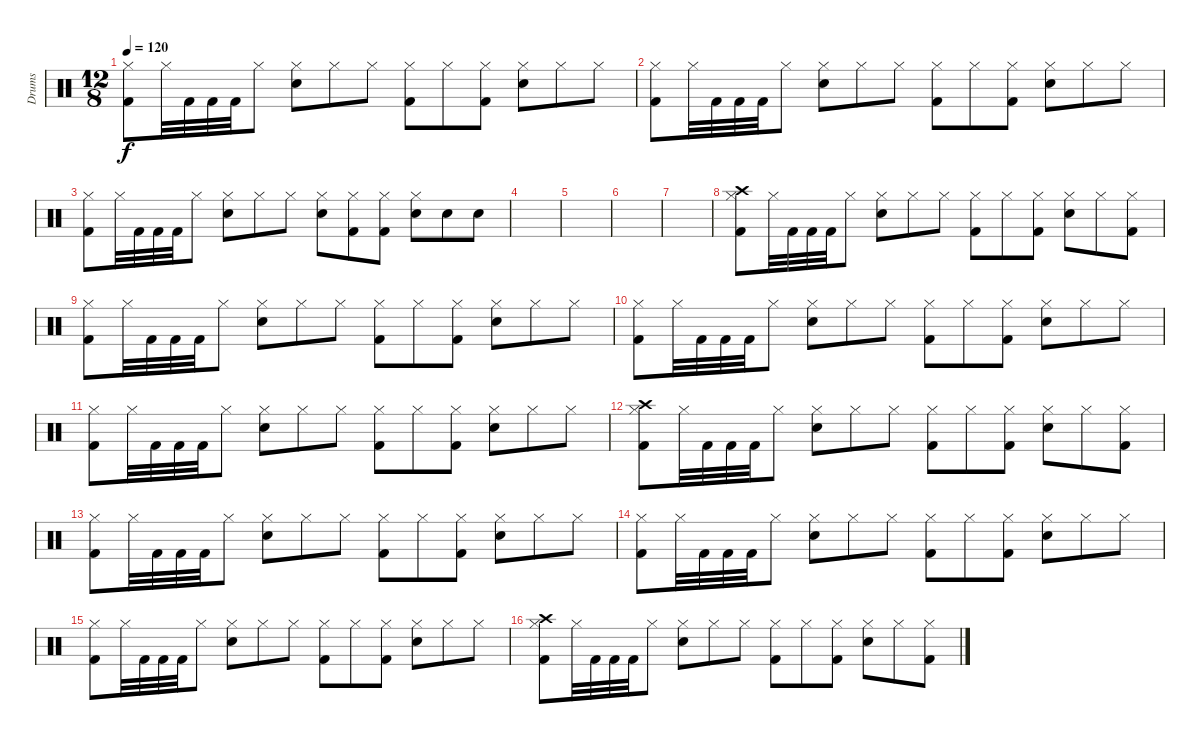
\track ("Drums" "Drums") {instrument percussion}
\staff {score}
\articulation defaults
\ts (12 8)
\tempo 120
\clef neutral
\ks c
("Hi-Hat (closed)" "Kick (hit) 2").8{dy f} "Hi-Hat (closed)".32 "Kick (hit) 2".32 "Kick (hit) 2".32 "Kick (hit) 2".32 "Hi-Hat (closed)".8 ("Hi-Hat (closed)" "Snare (hit) 2").8 "Hi-Hat (closed)".8 "Hi-Hat (closed)".8 ("Hi-Hat (closed)" "Kick (hit) 2").8 "Hi-Hat (closed)".8 ("Hi-Hat (closed)" "Kick (hit) 2").8 ("Hi-Hat (closed)" "Snare (hit) 2").8 "Hi-Hat (closed)".8 "Hi-Hat (closed)".8 |
("Hi-Hat (closed)" "Kick (hit) 2").8 "Hi-Hat (closed)".32 "Kick (hit) 2".32 "Kick (hit) 2".32 "Kick (hit) 2".32 "Hi-Hat (closed)".8 ("Hi-Hat (closed)" "Snare (hit) 2").8 "Hi-Hat (closed)".8 "Hi-Hat (closed)".8 ("Hi-Hat (closed)" "Kick (hit) 2").8 "Hi-Hat (closed)".8 ("Hi-Hat (closed)" "Kick (hit) 2").8 ("Hi-Hat (closed)" "Snare (hit) 2").8 "Hi-Hat (closed)".8 "Hi-Hat (closed)".8 |
("Hi-Hat (closed)" "Kick (hit) 2").8 "Hi-Hat (closed)".32 "Kick (hit) 2".32 "Kick (hit) 2".32 "Kick (hit) 2".32 "Hi-Hat (closed)".8 ("Hi-Hat (closed)" "Snare (hit) 2").8 "Hi-Hat (closed)".8 "Hi-Hat (closed)".8 ("Hi-Hat (closed)" "Snare (hit) 2").8 ("Hi-Hat (closed)" "Kick (hit) 2").8 ("Hi-Hat (closed)" "Kick (hit) 2").8 ("Hi-Hat (closed)" "Snare (hit) 2").8 "Snare (hit) 2".8 "Snare (hit) 2".8 |
|
|
|
|
("Crash high (hit)" "Hi-Hat (closed)" "Kick (hit) 2").8 "Hi-Hat (closed)".32 "Kick (hit) 2".32 "Kick (hit) 2".32 "Kick (hit) 2".32 "Hi-Hat (closed)".8 ("Hi-Hat (closed)" "Snare (hit) 2").8 "Hi-Hat (closed)".8 "Hi-Hat (closed)".8 ("Hi-Hat (closed)" "Kick (hit) 2").8 "Hi-Hat (closed)".8 ("Hi-Hat (closed)" "Kick (hit) 2").8 ("Hi-Hat (closed)" "Snare (hit) 2").8 "Hi-Hat (closed)".8 ("Hi-Hat (closed)" "Kick (hit) 2").8 |
("Hi-Hat (closed)" "Kick (hit) 2").8 "Hi-Hat (closed)".32 "Kick (hit) 2".32 "Kick (hit) 2".32 "Kick (hit) 2".32 "Hi-Hat (closed)".8 ("Hi-Hat (closed)" "Snare (hit) 2").8 "Hi-Hat (closed)".8 "Hi-Hat (closed)".8 ("Hi-Hat (closed)" "Kick (hit) 2").8 "Hi-Hat (closed)".8 ("Hi-Hat (closed)" "Kick (hit) 2").8 ("Hi-Hat (closed)" "Snare (hit) 2").8 "Hi-Hat (closed)".8 "Hi-Hat (closed)".8 |
("Hi-Hat (closed)" "Kick (hit) 2").8 "Hi-Hat (closed)".32 "Kick (hit) 2".32 "Kick (hit) 2".32 "Kick (hit) 2".32 "Hi-Hat (closed)".8 ("Hi-Hat (closed)" "Snare (hit) 2").8 "Hi-Hat (closed)".8 "Hi-Hat (closed)".8 ("Hi-Hat (closed)" "Kick (hit) 2").8 "Hi-Hat (closed)".8 ("Hi-Hat (closed)" "Kick (hit) 2").8 ("Hi-Hat (closed)" "Snare (hit) 2").8 "Hi-Hat (closed)".8 "Hi-Hat (closed)".8 |
("Hi-Hat (closed)" "Kick (hit) 2").8 "Hi-Hat (closed)".32 "Kick (hit) 2".32 "Kick (hit) 2".32 "Kick (hit) 2".32 "Hi-Hat (closed)".8 ("Hi-Hat (closed)" "Snare (hit) 2").8 "Hi-Hat (closed)".8 "Hi-Hat (closed)".8 ("Hi-Hat (closed)" "Kick (hit) 2").8 "Hi-Hat (closed)".8 ("Hi-Hat (closed)" "Kick (hit) 2").8 ("Hi-Hat (closed)" "Snare (hit) 2").8 "Hi-Hat (closed)".8 "Hi-Hat (closed)".8 |
("Crash high (hit)" "Hi-Hat (closed)" "Kick (hit) 2").8 "Hi-Hat (closed)".32 "Kick (hit) 2".32 "Kick (hit) 2".32 "Kick (hit) 2".32 "Hi-Hat (closed)".8 ("Hi-Hat (closed)" "Snare (hit) 2").8 "Hi-Hat (closed)".8 "Hi-Hat (closed)".8 ("Hi-Hat (closed)" "Kick (hit) 2").8 "Hi-Hat (closed)".8 ("Hi-Hat (closed)" "Kick (hit) 2").8 ("Hi-Hat (closed)" "Snare (hit) 2").8 "Hi-Hat (closed)".8 ("Hi-Hat (closed)" "Kick (hit) 2").8 |
("Hi-Hat (closed)" "Kick (hit) 2").8 "Hi-Hat (closed)".32 "Kick (hit) 2".32 "Kick (hit) 2".32 "Kick (hit) 2".32 "Hi-Hat (closed)".8 ("Hi-Hat (closed)" "Snare (hit) 2").8 "Hi-Hat (closed)".8 "Hi-Hat (closed)".8 ("Hi-Hat (closed)" "Kick (hit) 2").8 "Hi-Hat (closed)".8 ("Hi-Hat (closed)" "Kick (hit) 2").8 ("Hi-Hat (closed)" "Snare (hit) 2").8 "Hi-Hat (closed)".8 "Hi-Hat (closed)".8 |
("Hi-Hat (closed)" "Kick (hit) 2").8 "Hi-Hat (closed)".32 "Kick (hit) 2".32 "Kick (hit) 2".32 "Kick (hit) 2".32 "Hi-Hat (closed)".8 ("Hi-Hat (closed)" "Snare (hit) 2").8 "Hi-Hat (closed)".8 "Hi-Hat (closed)".8 ("Hi-Hat (closed)" "Kick (hit) 2").8 "Hi-Hat (closed)".8 ("Hi-Hat (closed)" "Kick (hit) 2").8 ("Hi-Hat (closed)" "Snare (hit) 2").8 "Hi-Hat (closed)".8 "Hi-Hat (closed)".8 |
("Hi-Hat (closed)" "Kick (hit) 2").8 "Hi-Hat (closed)".32 "Kick (hit) 2".32 "Kick (hit) 2".32 "Kick (hit) 2".32 "Hi-Hat (closed)".8 ("Hi-Hat (closed)" "Snare (hit) 2").8 "Hi-Hat (closed)".8 "Hi-Hat (closed)".8 ("Hi-Hat (closed)" "Kick (hit) 2").8 "Hi-Hat (closed)".8 ("Hi-Hat (closed)" "Kick (hit) 2").8 ("Hi-Hat (closed)" "Snare (hit) 2").8 "Hi-Hat (closed)".8 "Hi-Hat (closed)".8 |
("Crash high (hit)" "Hi-Hat (closed)" "Kick (hit) 2").8 "Hi-Hat (closed)".32 "Kick (hit) 2".32 "Kick (hit) 2".32 "Kick (hit) 2".32 "Hi-Hat (closed)".8 ("Hi-Hat (closed)" "Snare (hit) 2").8 "Hi-Hat (closed)".8 "Hi-Hat (closed)".8 ("Hi-Hat (closed)" "Kick (hit) 2").8 "Hi-Hat (closed)".8 ("Hi-Hat (closed)" "Kick (hit) 2").8 ("Hi-Hat (closed)" "Snare (hit) 2").8 "Hi-Hat (closed)".8 ("Hi-Hat (closed)" "Kick (hit) 2").8
